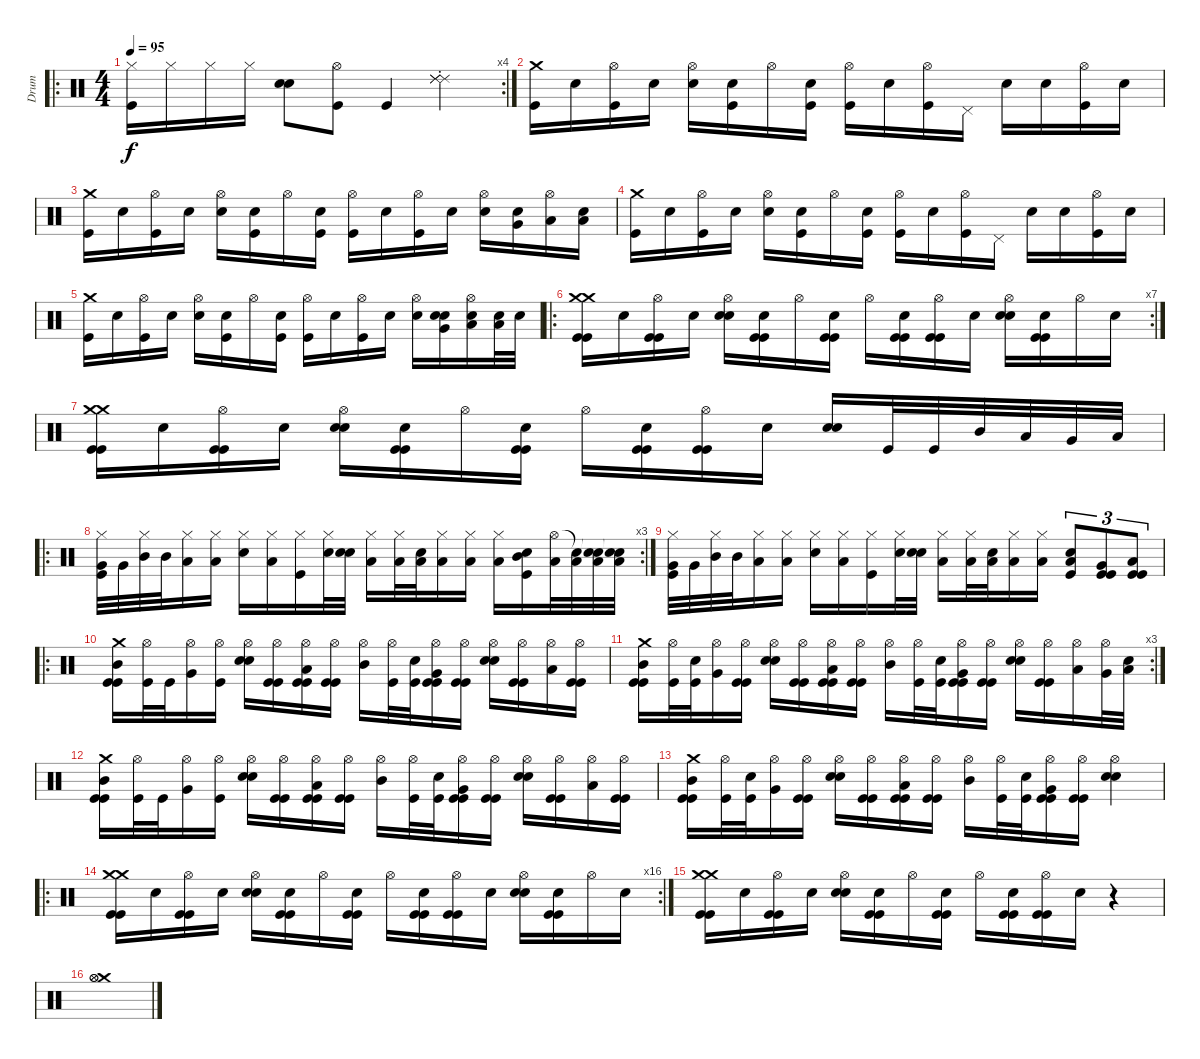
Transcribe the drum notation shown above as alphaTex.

\track ("Drum" "Drum") {instrument percussion}
\staff {score}
\articulation defaults
\ro
\rc 4
\ts (4 4)
\tempo 95
\clef neutral
\ks c
("Hi-Hat (closed)" "Kick (hit)").16{dy f} "Hi-Hat (closed)".16 "Hi-Hat (closed)".16 "Hi-Hat (closed)".16 ("Snare (hit)" "Snare (hit) 2").8 ("Hi-Hat (open)" "Kick (hit)").8 "Kick (hit)".4 ("Ride (choke) 2" "Ride (choke) 2" "Ride (choke) 2").4 |
("Crash medium (hit)" "Kick (hit)").16 "Snare (hit)".16 ("Hi-Hat (open)" "Kick (hit)").16 "Snare (hit)".16 ("Hi-Hat (open)" "Snare (hit) 2").16 ("Snare (hit)" "Kick (hit)").16 "Hi-Hat (open)".16 ("Snare (hit)" "Kick (hit)").16 ("Hi-Hat (open)" "Kick (hit)").16 "Snare (hit)".16 ("Hi-Hat (open)" "Kick (hit)").16 "Pedal Hi-Hat (hit)".16 "Snare (hit)".16 "Snare (hit)".16 ("Hi-Hat (open)" "Kick (hit)").16 "Snare (hit)".16 |
("Crash medium (hit)" "Kick (hit)").16 "Snare (hit)".16 ("Hi-Hat (open)" "Kick (hit)").16 "Snare (hit)".16 ("Hi-Hat (open)" "Snare (hit) 2").16 ("Snare (hit)" "Kick (hit)").16 "Hi-Hat (open)".16 ("Snare (hit)" "Kick (hit)").16 ("Hi-Hat (open)" "Kick (hit)").16 "Snare (hit)".16 ("Hi-Hat (open)" "Kick (hit)").16 "Snare (hit)".16 ("Hi-Hat (open)" "Snare (hit) 2").16 ("Snare (hit)" "Very Low Tom (hit)").16 ("Hi-Hat (open)" "Low Floor Tom (hit)").16 ("Snare (hit)" "Low Floor Tom (hit)").16 |
("Crash medium (hit)" "Kick (hit)").16 "Snare (hit)".16 ("Hi-Hat (open)" "Kick (hit)").16 "Snare (hit)".16 ("Hi-Hat (open)" "Snare (hit) 2").16 ("Snare (hit)" "Kick (hit)").16 "Hi-Hat (open)".16 ("Snare (hit)" "Kick (hit)").16 ("Hi-Hat (open)" "Kick (hit)").16 "Snare (hit)".16 ("Hi-Hat (open)" "Kick (hit)").16 "Pedal Hi-Hat (hit)".16 "Snare (hit)".16 "Snare (hit)".16 ("Hi-Hat (open)" "Kick (hit)").16 "Snare (hit)".16 |
("Crash medium (hit)" "Kick (hit)").16 "Snare (hit)".16 ("Hi-Hat (open)" "Kick (hit)").16 "Snare (hit)".16 ("Hi-Hat (open)" "Snare (hit) 2").16 ("Snare (hit)" "Kick (hit)").16 "Hi-Hat (open)".16 ("Snare (hit)" "Kick (hit)").16 ("Hi-Hat (open)" "Kick (hit)").16 "Snare (hit)".16 ("Hi-Hat (open)" "Kick (hit)").16 "Snare (hit)".16 ("Hi-Hat (open)" "Snare (hit) 2").16 ("Snare (hit)" "Snare (hit) 2" "Very Low Tom (hit)").16 ("Hi-Hat (open)" "Snare (hit) 2" "Low Floor Tom (hit)").16 ("Snare (hit) 2" "Low Floor Tom (hit)").32 "Snare (hit) 2".32 |
\ro
\rc 7
("Crash medium (hit)" "Crash medium (hit)" "Kick (hit)" "Kick (hit)").16 "Snare (hit)".16 ("Hi-Hat (open)" "Kick (hit)" "Kick (hit)").16 "Snare (hit)".16 ("Hi-Hat (open)" "Snare (hit) 2" "Snare (hit) 2").16 ("Snare (hit)" "Kick (hit)" "Kick (hit)").16 "Hi-Hat (open)".16 ("Snare (hit)" "Kick (hit)" "Kick (hit)").16 "Hi-Hat (open)".16 ("Snare (hit)" "Kick (hit)" "Kick (hit)").16 ("Hi-Hat (open)" "Kick (hit)" "Kick (hit)").16 "Snare (hit)".16 ("Hi-Hat (open)" "Snare (hit) 2" "Snare (hit) 2").16 ("Snare (hit)" "Kick (hit)" "Kick (hit)").16 "Hi-Hat (open)".16 "Snare (hit)".16 |
("Crash medium (hit)" "Crash medium (hit)" "Kick (hit)" "Kick (hit)").16 "Snare (hit)".16 ("Hi-Hat (open)" "Kick (hit)" "Kick (hit)").16 "Snare (hit)".16 ("Hi-Hat (open)" "Snare (hit) 2" "Snare (hit) 2").16 ("Snare (hit)" "Kick (hit)" "Kick (hit)").16 "Hi-Hat (open)".16 ("Snare (hit)" "Kick (hit)" "Kick (hit)").16 "Hi-Hat (open)".16 ("Snare (hit)" "Kick (hit)" "Kick (hit)").16 ("Hi-Hat (open)" "Kick (hit)" "Kick (hit)").16 "Snare (hit)".16 ("Snare (hit) 2" "Snare (hit) 2").16 "Kick (hit)".32 "Kick (hit)".32 "Mid Tom (hit)".32 "Low Tom (hit)".32 "Very Low Tom (hit)".32 "Low Floor Tom (hit)".32 |
\ro
\rc 3
("Hi-Hat (closed)" "Very Low Tom (hit)" "Kick (hit)").32 "Very Low Tom (hit)".32 ("Hi-Hat (closed)" "Mid Tom (hit)").32 "Mid Tom (hit)".32 ("Hi-Hat (closed)" "Low Tom (hit)").16 ("Hi-Hat (closed)" "Low Floor Tom (hit)").16 ("Hi-Hat (closed)" "Snare (hit) 2").16 ("Hi-Hat (closed)" "Low Tom (hit)").16 ("Hi-Hat (closed)" "Kick (hit)").16 ("Hi-Hat (closed)" "Snare (hit) 2").32 ("Snare (hit)" "Snare (hit) 2").32 ("Hi-Hat (closed)" "Low Floor Tom (hit)").16 ("Hi-Hat (closed)" "Low Floor Tom (hit)").32 ("Snare (hit)" "Low Floor Tom (hit)").32 ("Hi-Hat (closed)" "Low Floor Tom (hit)").16 ("Hi-Hat (closed)" "Low Floor Tom (hit)").16 ("Hi-Hat (closed)" "Low Floor Tom (hit)").16 ("Snare (hit)" "Mid Tom (hit)" "Kick (hit)").16 ("Hi-Hat (open)" "Low Tom (hit)").32 ("Snare (hit)"{t} "Low Tom (hit)").32 ("Snare (hit)"{t} "Snare (hit) 2" "Low Tom (hit)").32 ("Snare (hit)"{t} "Snare (hit) 2" "Low Tom (hit)").32 |
("Hi-Hat (closed)" "Very Low Tom (hit)" "Kick (hit)").32 "Very Low Tom (hit)".32 ("Hi-Hat (closed)" "Mid Tom (hit)").32 "Mid Tom (hit)".32 ("Hi-Hat (closed)" "Low Tom (hit)").16 ("Hi-Hat (closed)" "Low Floor Tom (hit)").16 ("Hi-Hat (closed)" "Snare (hit) 2").16 ("Hi-Hat (closed)" "Low Tom (hit)").16 ("Hi-Hat (closed)" "Kick (hit)").16 ("Hi-Hat (closed)" "Snare (hit) 2").32 ("Snare (hit)" "Snare (hit) 2").32 ("Hi-Hat (closed)" "Low Floor Tom (hit)").16 ("Hi-Hat (closed)" "Low Floor Tom (hit)").32 ("Snare (hit)" "Low Floor Tom (hit)").32 ("Hi-Hat (closed)" "Low Floor Tom (hit)").16 ("Hi-Hat (closed)" "Low Floor Tom (hit)").16 ("Snare (hit) 2" "Low Tom (hit)" "Kick (hit)").8{tu (3 2)} ("Kick (hit)" "Very Low Tom (hit)" "Kick (hit)").8{tu (3 2)} ("Kick (hit)" "Low Floor Tom (hit)" "Kick (hit)").8{tu (3 2)} |
\ro
("Crash medium (hit)" "Mid Tom (hit)" "Kick (hit)" "Kick (hit)").16 ("Hi-Hat (open)" "Kick (hit)").32 "Kick (hit)".32 ("Hi-Hat (open)" "Very Low Tom (hit)").16 ("Hi-Hat (open)" "Kick (hit)").16 ("Hi-Hat (open)" "Snare (hit) 2" "Snare (hit) 2").16 ("Hi-Hat (open)" "Kick (hit)" "Kick (hit)").16 ("Hi-Hat (open)" "Low Tom (hit)" "Kick (hit)" "Kick (hit)").16 ("Hi-Hat (open)" "Kick (hit)" "Kick (hit)").16 ("Hi-Hat (open)" "Mid Tom (hit)").16 ("Hi-Hat (open)" "Kick (hit)").32 ("Snare (hit)" "Kick (hit)").32 ("Hi-Hat (open)" "Very Low Tom (hit)" "Kick (hit)" "Kick (hit)").16 ("Hi-Hat (open)" "Kick (hit)" "Kick (hit)").16 ("Hi-Hat (open)" "Snare (hit) 2" "Snare (hit) 2").16 ("Hi-Hat (open)" "Kick (hit)" "Kick (hit)").16 ("Hi-Hat (open)" "Low Tom (hit)").16 ("Hi-Hat (open)" "Kick (hit)" "Kick (hit)").16 |
\rc 3
("Crash medium (hit)" "Mid Tom (hit)" "Kick (hit)" "Kick (hit)").16 ("Hi-Hat (open)" "Kick (hit)").32 ("Snare (hit)" "Kick (hit)").32 ("Hi-Hat (open)" "Very Low Tom (hit)").16 ("Hi-Hat (open)" "Kick (hit)" "Kick (hit)").16 ("Hi-Hat (open)" "Snare (hit) 2" "Snare (hit) 2").16 ("Hi-Hat (open)" "Kick (hit)" "Kick (hit)").16 ("Hi-Hat (open)" "Low Tom (hit)" "Kick (hit)" "Kick (hit)").16 ("Hi-Hat (open)" "Kick (hit)" "Kick (hit)").16 ("Hi-Hat (open)" "Mid Tom (hit)").16 ("Hi-Hat (open)" "Kick (hit)").32 ("Snare (hit)" "Kick (hit)").32 ("Hi-Hat (open)" "Very Low Tom (hit)" "Kick (hit)" "Kick (hit)").16 ("Hi-Hat (open)" "Kick (hit)" "Kick (hit)").16 ("Hi-Hat (open)" "Snare (hit) 2" "Snare (hit) 2").16 ("Hi-Hat (open)" "Kick (hit)" "Kick (hit)").16 ("Hi-Hat (open)" "Low Tom (hit)").16 ("Hi-Hat (open)" "Very Low Tom (hit)").32 ("Snare (hit)" "Low Floor Tom (hit)").32 |
("Crash medium (hit)" "Mid Tom (hit)" "Kick (hit)" "Kick (hit)").16 ("Hi-Hat (open)" "Kick (hit)").32 "Kick (hit)".32 ("Hi-Hat (open)" "Very Low Tom (hit)").16 ("Hi-Hat (open)" "Kick (hit)").16 ("Hi-Hat (open)" "Snare (hit) 2" "Snare (hit) 2").16 ("Hi-Hat (open)" "Kick (hit)" "Kick (hit)").16 ("Hi-Hat (open)" "Low Tom (hit)" "Kick (hit)" "Kick (hit)").16 ("Hi-Hat (open)" "Kick (hit)" "Kick (hit)").16 ("Hi-Hat (open)" "Mid Tom (hit)").16 ("Hi-Hat (open)" "Kick (hit)").32 ("Snare (hit)" "Kick (hit)").32 ("Hi-Hat (open)" "Very Low Tom (hit)" "Kick (hit)" "Kick (hit)").16 ("Hi-Hat (open)" "Kick (hit)" "Kick (hit)").16 ("Hi-Hat (open)" "Snare (hit) 2" "Snare (hit) 2").16 ("Hi-Hat (open)" "Kick (hit)" "Kick (hit)").16 ("Hi-Hat (open)" "Low Tom (hit)").16 ("Hi-Hat (open)" "Kick (hit)" "Kick (hit)").16 |
("Crash medium (hit)" "Mid Tom (hit)" "Kick (hit)" "Kick (hit)").16 ("Hi-Hat (open)" "Kick (hit)").32 ("Snare (hit)" "Kick (hit)").32 ("Hi-Hat (open)" "Very Low Tom (hit)").16 ("Hi-Hat (open)" "Kick (hit)" "Kick (hit)").16 ("Hi-Hat (open)" "Snare (hit) 2" "Snare (hit) 2").16 ("Hi-Hat (open)" "Kick (hit)" "Kick (hit)").16 ("Hi-Hat (open)" "Low Tom (hit)" "Kick (hit)" "Kick (hit)").16 ("Hi-Hat (open)" "Kick (hit)" "Kick (hit)").16 ("Hi-Hat (open)" "Mid Tom (hit)").16 ("Hi-Hat (open)" "Kick (hit)").32 ("Snare (hit)" "Kick (hit)").32 ("Hi-Hat (open)" "Very Low Tom (hit)" "Kick (hit)" "Kick (hit)").16 ("Hi-Hat (open)" "Kick (hit)" "Kick (hit)").16 ("Hi-Hat (open)" "Snare (hit) 2" "Snare (hit) 2").4 |
\ro
\rc 16
("Crash medium (hit)" "Crash medium (hit)" "Kick (hit)" "Kick (hit)").16 "Snare (hit)".16 ("Hi-Hat (open)" "Kick (hit)" "Kick (hit)").16 "Snare (hit)".16 ("Hi-Hat (open)" "Snare (hit) 2" "Snare (hit) 2").16 ("Snare (hit)" "Kick (hit)" "Kick (hit)").16 "Hi-Hat (open)".16 ("Snare (hit)" "Kick (hit)" "Kick (hit)").16 "Hi-Hat (open)".16 ("Snare (hit)" "Kick (hit)" "Kick (hit)").16 ("Hi-Hat (open)" "Kick (hit)" "Kick (hit)").16 "Snare (hit)".16 ("Hi-Hat (open)" "Snare (hit) 2" "Snare (hit) 2").16 ("Snare (hit)" "Kick (hit)" "Kick (hit)").16 "Hi-Hat (open)".16 "Snare (hit)".16 |
("Crash medium (hit)" "Crash medium (hit)" "Kick (hit)" "Kick (hit)").16 "Snare (hit)".16 ("Hi-Hat (open)" "Kick (hit)" "Kick (hit)").16 "Snare (hit)".16 ("Hi-Hat (open)" "Snare (hit) 2" "Snare (hit) 2").16 ("Snare (hit)" "Kick (hit)" "Kick (hit)").16 "Hi-Hat (open)".16 ("Snare (hit)" "Kick (hit)" "Kick (hit)").16 "Hi-Hat (open)".16 ("Snare (hit)" "Kick (hit)" "Kick (hit)").16 ("Hi-Hat (open)" "Kick (hit)" "Kick (hit)").16 "Snare (hit)".16 r.4 |
("Crash medium (hit)" "Hi-Hat (open)" "Hi-Hat (open)").1
